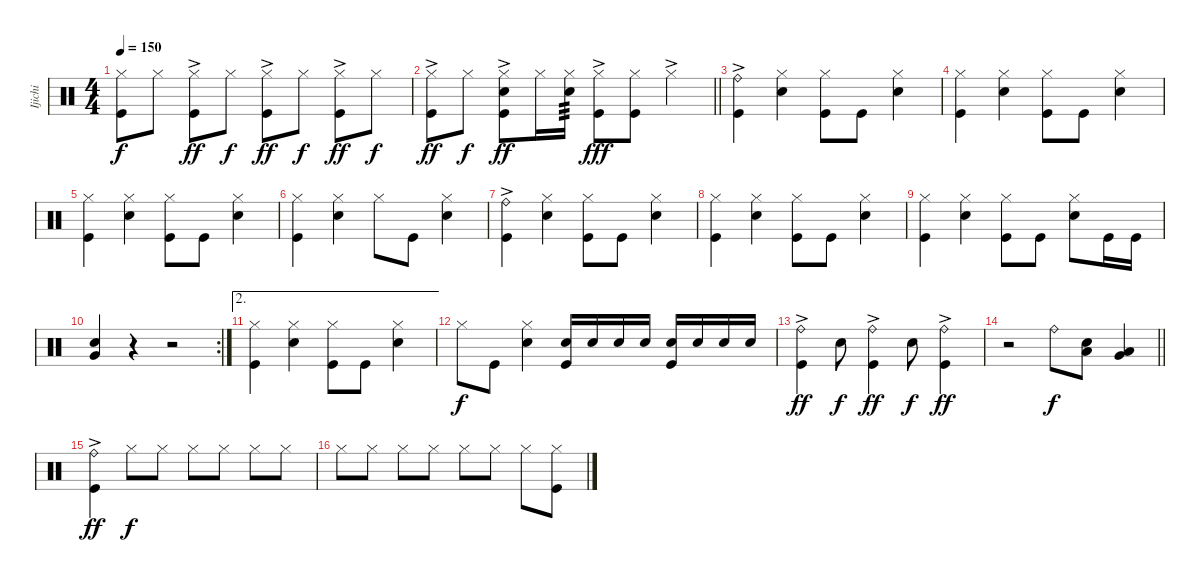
\track ("Ijichi" "Ijichi") {instrument percussion}
\staff {score}
\articulation defaults
\ts (4 4)
\tempo 150
\clef neutral
\ks c
("Hi-Hat (closed)" "Kick (hit)").8{dy f} "Hi-Hat (closed)".8 ("Hi-Hat (closed)"{ac} "Kick (hit)").8{dy ff} "Hi-Hat (closed)".8{dy f} ("Hi-Hat (closed)"{ac} "Kick (hit)").8{dy ff} "Hi-Hat (closed)".8{dy f} ("Hi-Hat (closed)"{ac} "Kick (hit)").8{dy ff} "Hi-Hat (closed)".8{dy f} |
\barLineRight lightlight
("Hi-Hat (closed)"{ac} "Kick (hit)").8{dy ff} "Hi-Hat (closed)".8{dy f} ("Hi-Hat (closed)"{ac} "Snare (hit) 2" "Kick (hit)").8{dy ff} "Hi-Hat (closed)".16 ("Hi-Hat (closed)" "Snare (hit) 2").16{tp 3} ("Hi-Hat (closed)"{ac} "Kick (hit)").8{dy fff} ("Hi-Hat (closed)" "Kick (hit)").8 "Hi-Hat (closed)"{ac}.4 |
("Ride (bell)"{ac} "Kick (hit)").4 ("Hi-Hat (closed)" "Snare (hit) 2").4 ("Hi-Hat (closed)" "Kick (hit)").8 "Kick (hit)".8 ("Hi-Hat (closed)" "Snare (hit) 2").4 |
("Hi-Hat (closed)" "Kick (hit)").4 ("Hi-Hat (closed)" "Snare (hit) 2").4 ("Hi-Hat (closed)" "Kick (hit)").8 "Kick (hit)".8 ("Hi-Hat (closed)" "Snare (hit) 2").4 |
("Hi-Hat (closed)" "Kick (hit)").4 ("Hi-Hat (closed)" "Snare (hit) 2").4 ("Hi-Hat (closed)" "Kick (hit)").8 "Kick (hit)".8 ("Hi-Hat (closed)" "Snare (hit) 2").4 |
("Hi-Hat (closed)" "Kick (hit)").4 ("Hi-Hat (closed)" "Snare (hit) 2").4 "Hi-Hat (closed)".8 "Kick (hit)".8 ("Hi-Hat (closed)" "Snare (hit) 2").4 |
("Ride (bell)"{ac} "Kick (hit)").4 ("Hi-Hat (closed)" "Snare (hit) 2").4 ("Hi-Hat (closed)" "Kick (hit)").8 "Kick (hit)".8 ("Hi-Hat (closed)" "Snare (hit) 2").4 |
("Hi-Hat (closed)" "Kick (hit)").4 ("Hi-Hat (closed)" "Snare (hit) 2").4 ("Hi-Hat (closed)" "Kick (hit)").8 "Kick (hit)".8 ("Hi-Hat (closed)" "Snare (hit) 2").4 |
("Hi-Hat (closed)" "Kick (hit)").4 ("Hi-Hat (closed)" "Snare (hit) 2").4 ("Hi-Hat (closed)" "Kick (hit)").8 "Kick (hit)".8 ("Hi-Hat (closed)" "Snare (hit) 2").8 "Kick (hit)".16 "Kick (hit)".16 |
\rc 2
("Snare (hit) 2" "Very Low Tom (hit)").4 r.4 r.2 |
\ae 2
("Hi-Hat (closed)" "Kick (hit)").4 ("Hi-Hat (closed)" "Snare (hit) 2").4 ("Hi-Hat (closed)" "Kick (hit)").8 "Kick (hit)".8 ("Hi-Hat (closed)" "Snare (hit) 2").4 |
"Hi-Hat (closed)".8{dy f} "Kick (hit)".8 ("Hi-Hat (closed)" "Snare (hit) 2").4 ("Snare (hit) 2" "Kick (hit)").16 "Snare (hit) 2".16 "Snare (hit) 2".16 "Snare (hit) 2".16 ("Snare (hit) 2" "Kick (hit)").16 "Snare (hit) 2".16 "Snare (hit) 2".16 "Snare (hit) 2".16 |
("Ride (bell)"{ac} "Kick (hit)").4{dy ff} "Snare (hit) 2".8{dy f} ("Ride (bell)"{ac} "Kick (hit)").4{dy ff} "Snare (hit) 2".8{dy f} ("Ride (bell)"{ac} "Kick (hit)").4{dy ff} |
\barLineRight lightlight
r.2 "Ride (bell)".8{dy f} ("Snare (hit) 2" "Low Tom (hit)").8 ("Low Tom (hit)" "Very Low Tom (hit)").4 |
("Ride (bell)"{ac} "Kick (hit)").4{dy ff} "Hi-Hat (closed)".8{dy f} "Hi-Hat (closed)".8 "Hi-Hat (closed)".8 "Hi-Hat (closed)".8 "Hi-Hat (closed)".8 "Hi-Hat (closed)".8 |
"Hi-Hat (closed)".8 "Hi-Hat (closed)".8 "Hi-Hat (closed)".8 "Hi-Hat (closed)".8 "Hi-Hat (closed)".8 "Hi-Hat (closed)".8 "Hi-Hat (closed)".8 ("Hi-Hat (closed)" "Kick (hit)").8
